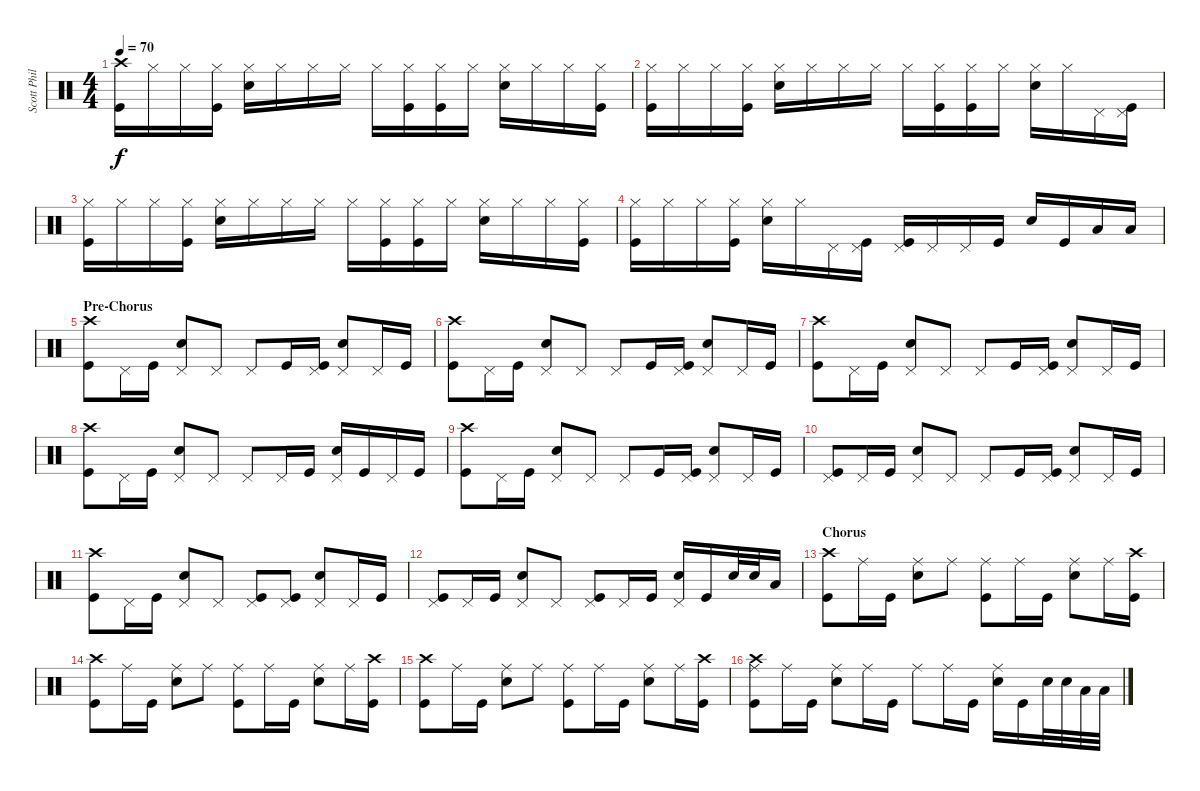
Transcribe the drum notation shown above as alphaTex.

\track ("Scott Phillips" "Scott Phil") {instrument percussion}
\staff {score}
\articulation defaults
\ts (4 4)
\tempo 70
\clef neutral
\ks c
("Crash high (hit)" "Kick (hit)").16{dy f} "Hi-Hat (closed)".16 "Hi-Hat (closed)".16 ("Hi-Hat (closed)" "Kick (hit)").16 ("Hi-Hat (closed)" "Snare (hit) 2").16 "Hi-Hat (closed)".16 "Hi-Hat (closed)".16 "Hi-Hat (closed)".16 "Hi-Hat (closed)".16 ("Hi-Hat (closed)" "Kick (hit)").16 ("Hi-Hat (closed)" "Kick (hit)").16 "Hi-Hat (closed)".16 ("Hi-Hat (closed)" "Snare (hit) 2").16 "Hi-Hat (closed)".16 "Hi-Hat (closed)".16 ("Hi-Hat (closed)" "Kick (hit)").16 |
("Hi-Hat (closed)" "Kick (hit)").16 "Hi-Hat (closed)".16 "Hi-Hat (closed)".16 ("Hi-Hat (closed)" "Kick (hit)").16 ("Hi-Hat (closed)" "Snare (hit) 2").16 "Hi-Hat (closed)".16 "Hi-Hat (closed)".16 "Hi-Hat (closed)".16 "Hi-Hat (closed)".16 ("Hi-Hat (closed)" "Kick (hit)").16 ("Hi-Hat (closed)" "Kick (hit)").16 "Hi-Hat (closed)".16 ("Hi-Hat (closed)" "Snare (hit) 2").16 "Hi-Hat (closed)".16 "Pedal Hi-Hat (hit)".16 ("Pedal Hi-Hat (hit)" "Kick (hit)").16 |
("Hi-Hat (closed)" "Kick (hit)").16 "Hi-Hat (closed)".16 "Hi-Hat (closed)".16 ("Hi-Hat (closed)" "Kick (hit)").16 ("Hi-Hat (closed)" "Snare (hit) 2").16 "Hi-Hat (closed)".16 "Hi-Hat (closed)".16 "Hi-Hat (closed)".16 "Hi-Hat (closed)".16 ("Hi-Hat (closed)" "Kick (hit)").16 ("Hi-Hat (closed)" "Kick (hit)").16 "Hi-Hat (closed)".16 ("Hi-Hat (closed)" "Snare (hit) 2").16 "Hi-Hat (closed)".16 "Hi-Hat (closed)".16 ("Hi-Hat (closed)" "Kick (hit)").16 |
("Hi-Hat (closed)" "Kick (hit)").16 "Hi-Hat (closed)".16 "Hi-Hat (closed)".16 ("Hi-Hat (closed)" "Kick (hit)").16 ("Hi-Hat (closed)" "Snare (hit) 2").16 "Hi-Hat (closed)".16 "Pedal Hi-Hat (hit)".16 ("Pedal Hi-Hat (hit)" "Kick (hit)").16 ("Pedal Hi-Hat (hit)" "Kick (hit)").16 "Pedal Hi-Hat (hit)".16 "Pedal Hi-Hat (hit)".16 "Kick (hit)".16 "Snare (hit) 2".16 "Kick (hit)".16 "Low Tom (hit)".16 "Low Tom (hit)".16 |
\section ("" "Pre-Chorus")
("Crash high (hit)" "Kick (hit)").8 "Pedal Hi-Hat (hit)".16 "Kick (hit)".16 ("Pedal Hi-Hat (hit)" "Snare (hit) 2").8 "Pedal Hi-Hat (hit)".8 "Pedal Hi-Hat (hit)".8 "Kick (hit)".16 ("Pedal Hi-Hat (hit)" "Kick (hit)").16 ("Pedal Hi-Hat (hit)" "Snare (hit) 2").8 "Pedal Hi-Hat (hit)".16 "Kick (hit)".16 |
("Crash high (hit)" "Kick (hit)").8 "Pedal Hi-Hat (hit)".16 "Kick (hit)".16 ("Pedal Hi-Hat (hit)" "Snare (hit) 2").8 "Pedal Hi-Hat (hit)".8 "Pedal Hi-Hat (hit)".8 "Kick (hit)".16 ("Pedal Hi-Hat (hit)" "Kick (hit)").16 ("Pedal Hi-Hat (hit)" "Snare (hit) 2").8 "Pedal Hi-Hat (hit)".16 "Kick (hit)".16 |
("Crash high (hit)" "Kick (hit)").8 "Pedal Hi-Hat (hit)".16 "Kick (hit)".16 ("Pedal Hi-Hat (hit)" "Snare (hit) 2").8 "Pedal Hi-Hat (hit)".8 "Pedal Hi-Hat (hit)".8 "Kick (hit)".16 ("Pedal Hi-Hat (hit)" "Kick (hit)").16 ("Pedal Hi-Hat (hit)" "Snare (hit) 2").8 "Pedal Hi-Hat (hit)".16 "Kick (hit)".16 |
("Crash high (hit)" "Kick (hit)").8 "Pedal Hi-Hat (hit)".16 "Kick (hit)".16 ("Pedal Hi-Hat (hit)" "Snare (hit) 2").8 "Pedal Hi-Hat (hit)".8 "Pedal Hi-Hat (hit)".8 "Pedal Hi-Hat (hit)".16 "Kick (hit)".16 ("Pedal Hi-Hat (hit)" "Snare (hit) 2").16 "Kick (hit)".16 "Pedal Hi-Hat (hit)".16 "Kick (hit)".16 |
("Crash high (hit)" "Kick (hit)").8 "Pedal Hi-Hat (hit)".16 "Kick (hit)".16 ("Pedal Hi-Hat (hit)" "Snare (hit) 2").8 "Pedal Hi-Hat (hit)".8 "Pedal Hi-Hat (hit)".8 "Kick (hit)".16 ("Pedal Hi-Hat (hit)" "Kick (hit)").16 ("Pedal Hi-Hat (hit)" "Snare (hit) 2").8 "Pedal Hi-Hat (hit)".16 "Kick (hit)".16 |
("Pedal Hi-Hat (hit)" "Kick (hit)").8 "Pedal Hi-Hat (hit)".16 "Kick (hit)".16 ("Pedal Hi-Hat (hit)" "Snare (hit) 2").8 "Pedal Hi-Hat (hit)".8 "Pedal Hi-Hat (hit)".8 "Kick (hit)".16 ("Pedal Hi-Hat (hit)" "Kick (hit)").16 ("Pedal Hi-Hat (hit)" "Snare (hit) 2").8 "Pedal Hi-Hat (hit)".16 "Kick (hit)".16 |
("Crash high (hit)" "Kick (hit)").8 "Pedal Hi-Hat (hit)".16 "Kick (hit)".16 ("Pedal Hi-Hat (hit)" "Snare (hit) 2").8 "Pedal Hi-Hat (hit)".8 ("Pedal Hi-Hat (hit)" "Kick (hit)").8 ("Pedal Hi-Hat (hit)" "Kick (hit)").8 ("Pedal Hi-Hat (hit)" "Snare (hit) 2").8 "Pedal Hi-Hat (hit)".16 "Kick (hit)".16 |
("Pedal Hi-Hat (hit)" "Kick (hit)").8 "Pedal Hi-Hat (hit)".16 "Kick (hit)".16 ("Pedal Hi-Hat (hit)" "Snare (hit) 2").8 "Pedal Hi-Hat (hit)".8 ("Pedal Hi-Hat (hit)" "Kick (hit)").8 "Pedal Hi-Hat (hit)".16 "Kick (hit)".16 ("Pedal Hi-Hat (hit)" "Snare (hit) 2").16 "Kick (hit)".16 "Snare (hit) 2".32 "Snare (hit) 2".32 "Low Tom (hit)".16 |
\section ("" "Chorus")
("Crash high (hit)" "Kick (hit)").8 "Ride (middle)".16 "Kick (hit)".16 ("Ride (middle)" "Snare (hit) 2").8 "Ride (middle)".8 ("Ride (middle)" "Kick (hit)").8 "Ride (middle)".16 "Kick (hit)".16 ("Ride (middle)" "Snare (hit) 2").8 "Ride (middle)".16 ("Crash high (hit)" "Kick (hit)").16 |
("Crash high (hit)" "Kick (hit)").8 "Ride (middle)".16 "Kick (hit)".16 ("Ride (middle)" "Snare (hit) 2").8 "Ride (middle)".8 ("Ride (middle)" "Kick (hit)").8 "Ride (middle)".16 "Kick (hit)".16 ("Ride (middle)" "Snare (hit) 2").8 "Ride (middle)".16 ("Crash high (hit)" "Kick (hit)").16 |
("Crash high (hit)" "Kick (hit)").8 "Ride (middle)".16 "Kick (hit)".16 ("Ride (middle)" "Snare (hit) 2").8 "Ride (middle)".8 ("Ride (middle)" "Kick (hit)").8 "Ride (middle)".16 "Kick (hit)".16 ("Ride (middle)" "Snare (hit) 2").8 "Ride (middle)".16 ("Crash high (hit)" "Kick (hit)").16 |
("Crash high (hit)" "Ride (middle)" "Kick (hit)").8 "Ride (middle)".16 "Kick (hit)".16 ("Ride (middle)" "Snare (hit) 2").8 "Ride (middle)".16 "Kick (hit)".16 "Ride (middle)".8 "Ride (middle)".16 "Kick (hit)".16 ("Ride (middle)" "Snare (hit) 2").16 "Kick (hit)".16 "Snare (hit) 2".32 "Snare (hit) 2".32 "Low Tom (hit)".32 "Low Tom (hit)".32
